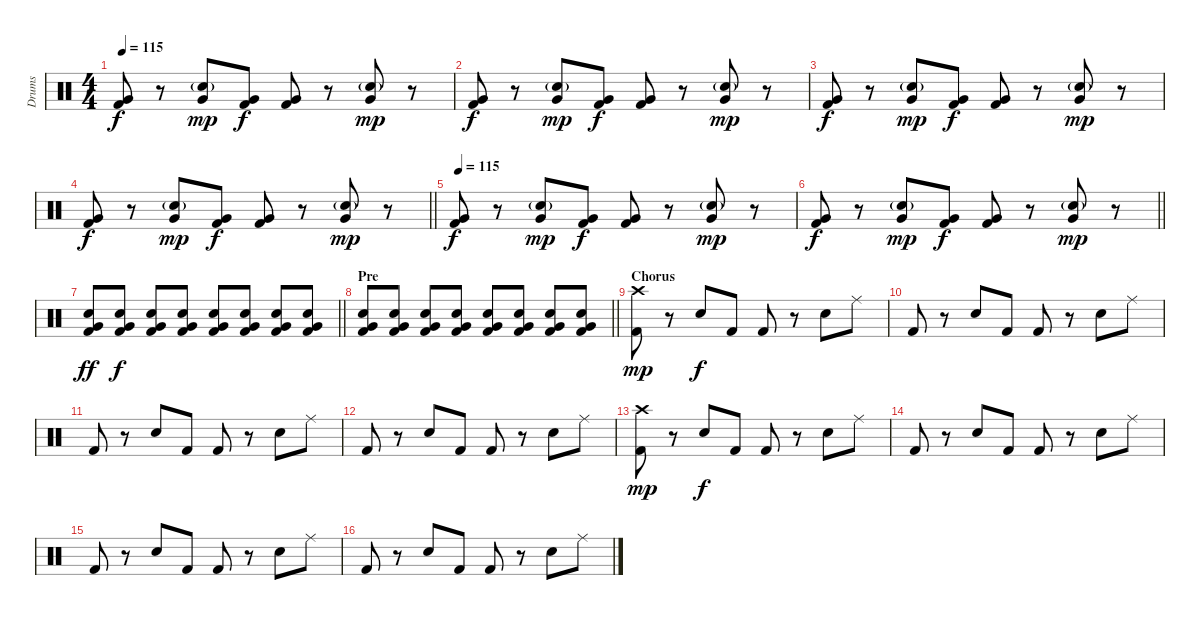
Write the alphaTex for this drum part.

\track ("Drums" "Drums") {instrument percussion}
\staff {score}
\articulation defaults
\ts (4 4)
\tempo 115
\clef neutral
\ks c
("Very Low Tom (hit)" "Kick (hit) 2").8{dy f} r.8 ("Snare (hit) 2"{g} "Very Low Tom (hit)").8{dy mp} ("Very Low Tom (hit)" "Kick (hit) 2").8{dy f} ("Very Low Tom (hit)" "Kick (hit) 2").8 r.8 ("Snare (hit) 2"{g} "Very Low Tom (hit)").8{dy mp} r.8 |
("Very Low Tom (hit)" "Kick (hit) 2").8{dy f} r.8 ("Snare (hit) 2"{g} "Very Low Tom (hit)").8{dy mp} ("Very Low Tom (hit)" "Kick (hit) 2").8{dy f} ("Very Low Tom (hit)" "Kick (hit) 2").8 r.8 ("Snare (hit) 2"{g} "Very Low Tom (hit)").8{dy mp} r.8 |
("Very Low Tom (hit)" "Kick (hit) 2").8{dy f} r.8 ("Snare (hit) 2"{g} "Very Low Tom (hit)").8{dy mp} ("Very Low Tom (hit)" "Kick (hit) 2").8{dy f} ("Very Low Tom (hit)" "Kick (hit) 2").8 r.8 ("Snare (hit) 2"{g} "Very Low Tom (hit)").8{dy mp} r.8 |
\barLineRight lightlight
("Very Low Tom (hit)" "Kick (hit) 2").8{dy f} r.8 ("Snare (hit) 2"{g} "Very Low Tom (hit)").8{dy mp} ("Very Low Tom (hit)" "Kick (hit) 2").8{dy f} ("Very Low Tom (hit)" "Kick (hit) 2").8 r.8 ("Snare (hit) 2"{g} "Very Low Tom (hit)").8{dy mp} r.8 |
\tempo 115
("Very Low Tom (hit)" "Kick (hit) 2").8{dy f} r.8 ("Snare (hit) 2"{g} "Very Low Tom (hit)").8{dy mp} ("Very Low Tom (hit)" "Kick (hit) 2").8{dy f} ("Very Low Tom (hit)" "Kick (hit) 2").8 r.8 ("Snare (hit) 2"{g} "Very Low Tom (hit)").8{dy mp} r.8 |
\barLineRight lightlight
("Very Low Tom (hit)" "Kick (hit) 2").8{dy f} r.8 ("Snare (hit) 2"{g} "Very Low Tom (hit)").8{dy mp} ("Very Low Tom (hit)" "Kick (hit) 2").8{dy f} ("Very Low Tom (hit)" "Kick (hit) 2").8 r.8 ("Snare (hit) 2"{g} "Very Low Tom (hit)").8{dy mp} r.8 |
\barLineRight lightlight
("Electric Snare (hit)" "Very Low Tom (hit)" "Kick (hit) 2").8{dy ff volume 2} ("Electric Snare (hit)" "Very Low Tom (hit)" "Kick (hit) 2").8{dy f volume 16} ("Electric Snare (hit)" "Very Low Tom (hit)" "Kick (hit) 2").8 ("Electric Snare (hit)" "Very Low Tom (hit)" "Kick (hit) 2").8 ("Electric Snare (hit)" "Very Low Tom (hit)" "Kick (hit) 2").8 ("Electric Snare (hit)" "Very Low Tom (hit)" "Kick (hit) 2").8 ("Electric Snare (hit)" "Very Low Tom (hit)" "Kick (hit) 2").8 ("Electric Snare (hit)" "Very Low Tom (hit)" "Kick (hit) 2").8 |
\section ("" "Pre")
\barLineRight lightlight
("Electric Snare (hit)" "Very Low Tom (hit)" "Kick (hit) 2").8 ("Electric Snare (hit)" "Very Low Tom (hit)" "Kick (hit) 2").8 ("Electric Snare (hit)" "Very Low Tom (hit)" "Kick (hit) 2").8 ("Electric Snare (hit)" "Very Low Tom (hit)" "Kick (hit) 2").8 ("Electric Snare (hit)" "Very Low Tom (hit)" "Kick (hit) 2").8 ("Electric Snare (hit)" "Very Low Tom (hit)" "Kick (hit) 2").8 ("Electric Snare (hit)" "Very Low Tom (hit)" "Kick (hit) 2").8 ("Electric Snare (hit)" "Very Low Tom (hit)" "Kick (hit) 2").8 |
\section ("" "Chorus")
("Crash high (hit)" "Kick (hit) 2").8{dy mp} r.8 "Electric Snare (hit)".8{dy f} "Kick (hit) 2".8 "Kick (hit) 2".8 r.8 "Electric Snare (hit)".8 "Ride (middle)".8 |
"Kick (hit) 2".8 r.8 "Electric Snare (hit)".8 "Kick (hit) 2".8 "Kick (hit) 2".8 r.8 "Electric Snare (hit)".8 "Ride (middle)".8 |
"Kick (hit) 2".8 r.8 "Electric Snare (hit)".8 "Kick (hit) 2".8 "Kick (hit) 2".8 r.8 "Electric Snare (hit)".8 "Ride (middle)".8 |
"Kick (hit) 2".8 r.8 "Electric Snare (hit)".8 "Kick (hit) 2".8 "Kick (hit) 2".8 r.8 "Electric Snare (hit)".8 "Ride (middle)".8 |
("Crash high (hit)" "Kick (hit) 2").8{dy mp} r.8 "Electric Snare (hit)".8{dy f} "Kick (hit) 2".8 "Kick (hit) 2".8 r.8 "Electric Snare (hit)".8 "Ride (middle)".8 |
"Kick (hit) 2".8 r.8 "Electric Snare (hit)".8 "Kick (hit) 2".8 "Kick (hit) 2".8 r.8 "Electric Snare (hit)".8 "Ride (middle)".8 |
"Kick (hit) 2".8 r.8 "Electric Snare (hit)".8 "Kick (hit) 2".8 "Kick (hit) 2".8 r.8 "Electric Snare (hit)".8 "Ride (middle)".8 |
"Kick (hit) 2".8 r.8 "Electric Snare (hit)".8 "Kick (hit) 2".8 "Kick (hit) 2".8 r.8 "Electric Snare (hit)".8 "Ride (middle)".8
